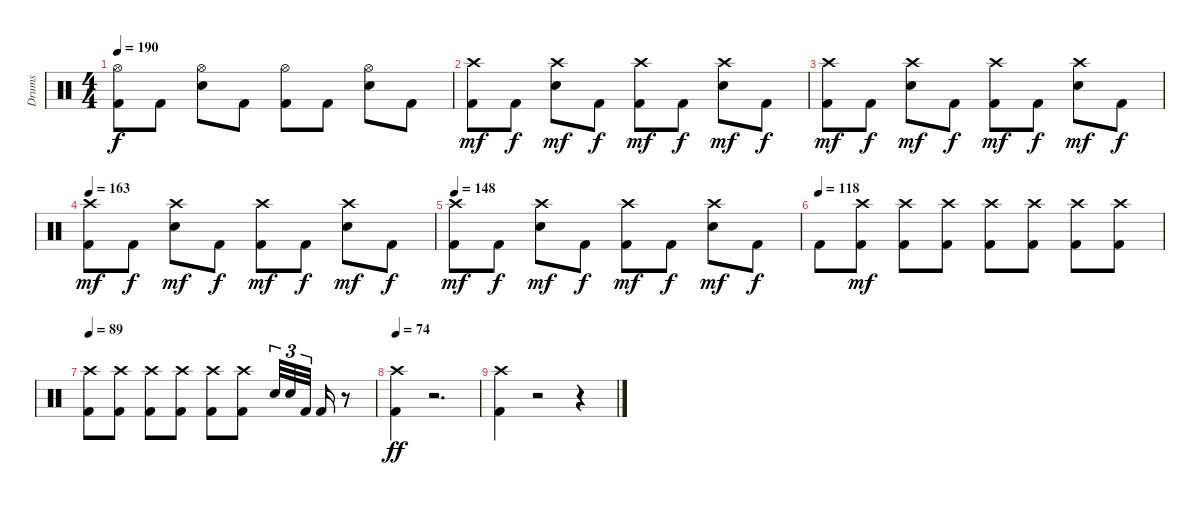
\track ("Drums" "Drums") {instrument percussion}
\staff {score}
\articulation defaults
\ts (4 4)
\tempo 190
\clef neutral
\ks c
("Kick (hit) 2" "Hi-Hat (open)").8{dy f volume 15} "Kick (hit) 2".8 ("Snare (hit) 2" "Hi-Hat (open)").8 "Kick (hit) 2".8 ("Kick (hit) 2" "Hi-Hat (open)").8 "Kick (hit) 2".8 ("Snare (hit) 2" "Hi-Hat (open)").8 "Kick (hit) 2".8 |
("Kick (hit) 2" "Crash high (hit)").8{dy mf volume 15} "Kick (hit) 2".8{dy f} ("Snare (hit) 2" "Crash high (hit)").8{dy mf} "Kick (hit) 2".8{dy f} ("Kick (hit) 2" "Crash high (hit)").8{dy mf} "Kick (hit) 2".8{dy f} ("Snare (hit) 2" "Crash high (hit)").8{dy mf} "Kick (hit) 2".8{dy f} |
("Kick (hit) 2" "Crash high (hit)").8{dy mf volume 15} "Kick (hit) 2".8{dy f} ("Snare (hit) 2" "Crash high (hit)").8{dy mf} "Kick (hit) 2".8{dy f} ("Kick (hit) 2" "Crash high (hit)").8{dy mf} "Kick (hit) 2".8{dy f} ("Snare (hit) 2" "Crash high (hit)").8{dy mf} "Kick (hit) 2".8{dy f} |
\tempo 163
("Kick (hit) 2" "Crash high (hit)").8{dy mf volume 15} "Kick (hit) 2".8{dy f} ("Snare (hit) 2" "Crash high (hit)").8{dy mf} "Kick (hit) 2".8{dy f} ("Kick (hit) 2" "Crash high (hit)").8{dy mf} "Kick (hit) 2".8{dy f} ("Snare (hit) 2" "Crash high (hit)").8{dy mf} "Kick (hit) 2".8{dy f} |
\tempo 148
("Kick (hit) 2" "Crash high (hit)").8{dy mf volume 15} "Kick (hit) 2".8{dy f} ("Snare (hit) 2" "Crash high (hit)").8{dy mf} "Kick (hit) 2".8{dy f} ("Kick (hit) 2" "Crash high (hit)").8{dy mf} "Kick (hit) 2".8{dy f} ("Snare (hit) 2" "Crash high (hit)").8{dy mf} "Kick (hit) 2".8{dy f} |
\tempo (118)
"Kick (hit) 2".8{volume 15} ("Kick (hit) 2" "Crash high (hit)").8{dy mf} ("Kick (hit) 2" "Crash high (hit)").8 ("Kick (hit) 2" "Crash high (hit)").8 ("Kick (hit) 2" "Crash high (hit)").8 ("Kick (hit) 2" "Crash high (hit)").8 ("Kick (hit) 2" "Crash high (hit)").8 ("Kick (hit) 2" "Crash high (hit)").8 |
\tempo 89
("Kick (hit) 2" "Crash high (hit)").8{volume 15} ("Kick (hit) 2" "Crash high (hit)").8 ("Kick (hit) 2" "Crash high (hit)").8 ("Kick (hit) 2" "Crash high (hit)").8 ("Kick (hit) 2" "Crash high (hit)").8 ("Kick (hit) 2" "Crash high (hit)").8 "Snare (hit) 2".32{tu (3 2)} "Snare (hit) 2".32{tu (3 2)} "Kick (hit) 2".32{tu (3 2)} "Kick (hit) 2".16 r.8 |
\tempo 74
("Kick (hit) 2" "Crash high (hit)").4{dy ff volume 15} r.2{d} |
("Kick (hit) 2" "Crash high (hit)").4{volume 15} r.2 r.4
